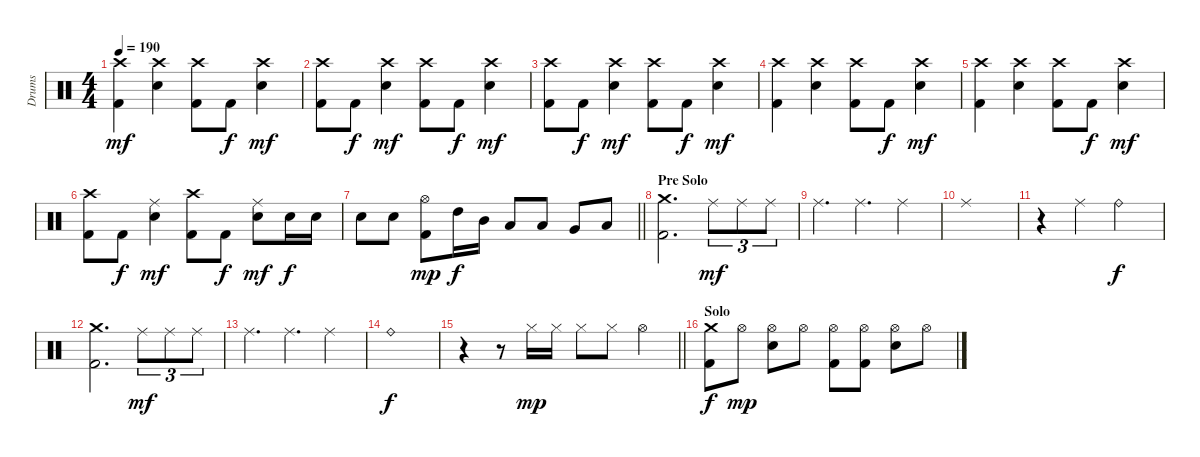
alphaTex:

\track ("Drums" "Drums") {instrument percussion}
\staff {score}
\articulation defaults
\ts (4 4)
\tempo 190
\clef neutral
\ks c
("Crash high (hit)" "Kick (hit) 2").4{dy mf} ("Crash high (hit)" "Snare (hit) 2").4 ("Crash high (hit)" "Kick (hit) 2").8 "Kick (hit) 2".8{dy f} ("Crash high (hit)" "Snare (hit) 2").4{dy mf} |
("Crash high (hit)" "Kick (hit) 2").8 "Kick (hit) 2".8{dy f} ("Crash high (hit)" "Snare (hit) 2").4{dy mf} ("Crash high (hit)" "Kick (hit) 2").8 "Kick (hit) 2".8{dy f} ("Crash high (hit)" "Snare (hit) 2").4{dy mf} |
("Crash high (hit)" "Kick (hit) 2").8 "Kick (hit) 2".8{dy f} ("Crash high (hit)" "Snare (hit) 2").4{dy mf} ("Crash high (hit)" "Kick (hit) 2").8 "Kick (hit) 2".8{dy f} ("Crash high (hit)" "Snare (hit) 2").4{dy mf} |
("Crash high (hit)" "Kick (hit) 2").4 ("Crash high (hit)" "Snare (hit) 2").4 ("Crash high (hit)" "Kick (hit) 2").8 "Kick (hit) 2".8{dy f} ("Crash high (hit)" "Snare (hit) 2").4{dy mf} |
("Crash high (hit)" "Kick (hit) 2").4 ("Crash high (hit)" "Snare (hit) 2").4 ("Crash high (hit)" "Kick (hit) 2").8 "Kick (hit) 2".8{dy f} ("Crash high (hit)" "Snare (hit) 2").4{dy mf} |
("Crash high (hit)" "Kick (hit) 2").8 "Kick (hit) 2".8{dy f} ("Ride (middle)" "Snare (hit) 2").4{dy mf} ("Crash high (hit)" "Kick (hit) 2").8 "Kick (hit) 2".8{dy f} ("Ride (middle)" "Snare (hit) 2").8{dy mf} "Snare (hit) 2".16{dy f} "Snare (hit) 2".16 |
\barLineRight lightlight "Snare (hit) 2".8 "Snare (hit) 2".8
("Hi-Hat (open)" "Kick (hit) 2").8{dy mp} "High Tom (hit)".16{dy f} "Mid Tom (hit)".16 "Low Tom (hit)".8 "Low Tom (hit)".8 "Very Low Tom (hit)".8 "Low Floor Tom (hit)".8 |
\section ("" "Pre Solo")
("Crash medium (hit)" "Kick (hit) 2").2{d} "Ride (middle)".8{tu (3 2) dy mf} "Ride (middle)".8{tu (3 2)} "Ride (middle)".8{tu (3 2)} |
"Ride (middle)".4{d} "Ride (middle)".4{d} "Ride (middle)".4 |
"Ride (middle)".1 |
r.4 "Ride (middle)".4 "Ride (bell)".2{dy f} |
("Crash medium (hit)" "Kick (hit) 2").2{d} "Ride (middle)".8{tu (3 2) dy mf} "Ride (middle)".8{tu (3 2)} "Ride (middle)".8{tu (3 2)} |
"Ride (middle)".4{d} "Ride (middle)".4{d} "Ride (middle)".4 |
"Ride (bell)".1{dy f} |
\barLineRight lightlight
r.4 r.8 "Hi-Hat (closed)".16{dy mp} "Hi-Hat (closed)".16 "Hi-Hat (closed)".8 "Hi-Hat (closed)".8 "Hi-Hat (open)".4 |
\section ("" "Solo")
("Crash medium (hit)" "Kick (hit) 2").8{dy f} "Hi-Hat (open)".8{dy mp} ("Hi-Hat (open)" "Snare (hit) 2").8 "Hi-Hat (open)".8 ("Hi-Hat (open)" "Kick (hit) 2").8 ("Hi-Hat (open)" "Kick (hit) 2").8 ("Hi-Hat (open)" "Snare (hit) 2").8 "Hi-Hat (open)".8
